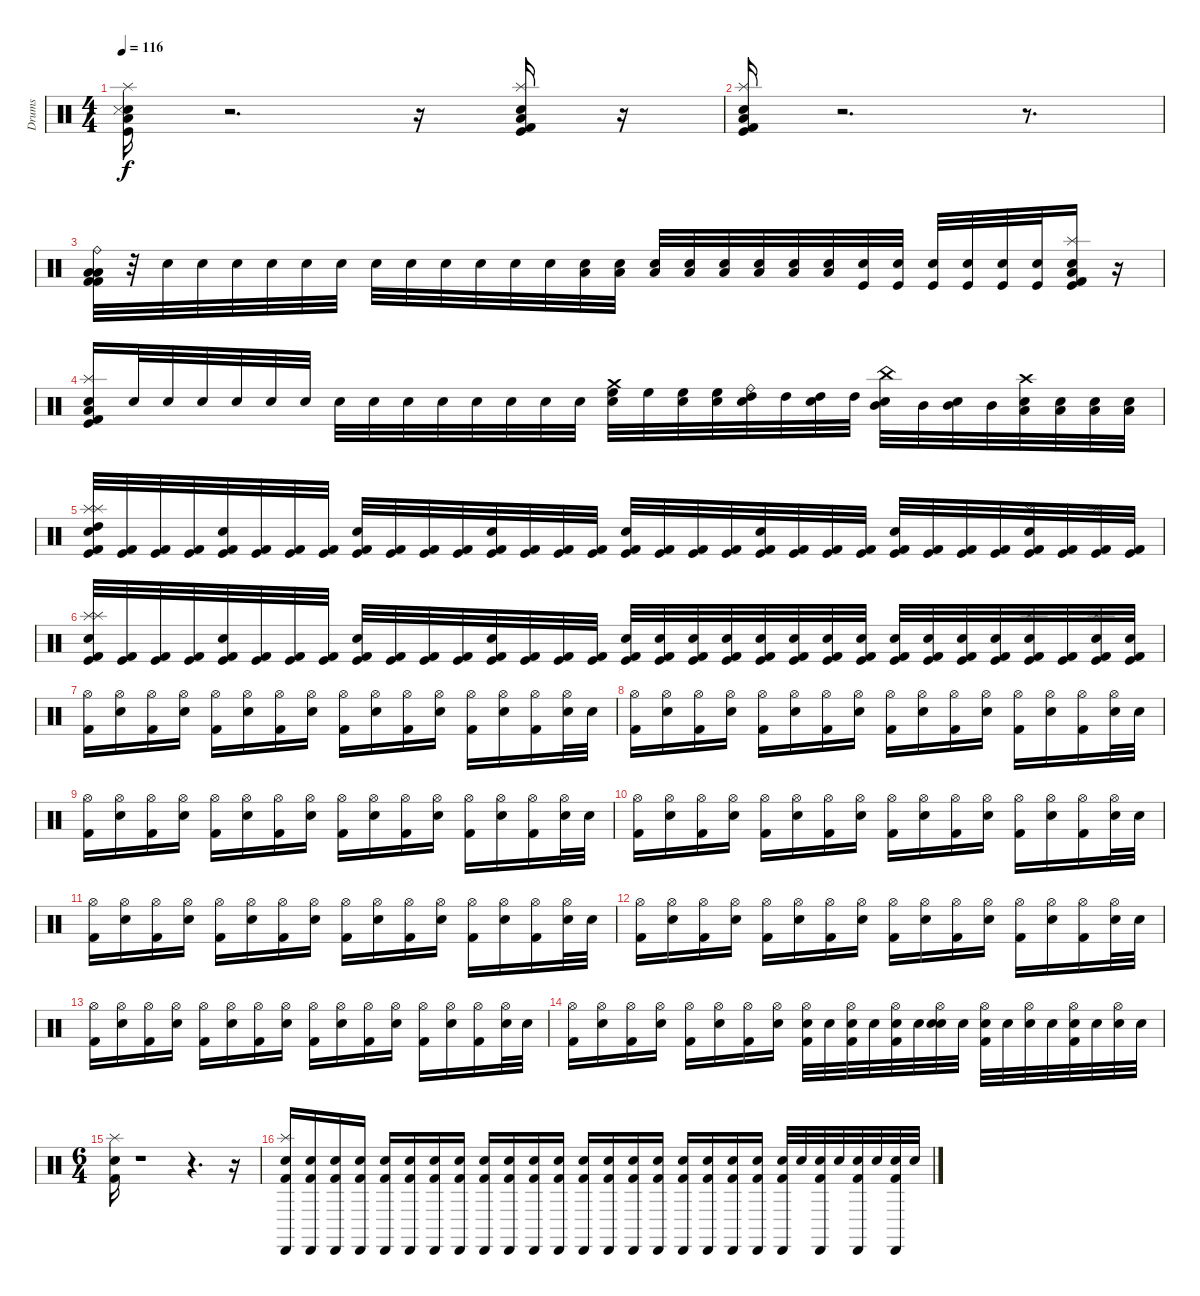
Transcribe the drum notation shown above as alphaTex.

\track ("Drums" "Drums") {instrument percussion}
\staff {score}
\articulation defaults
\ts (4 4)
\tempo 116
\clef neutral
\ks c
("Snare (hit) 2" "Kick (hit)" "Metronome (hit)" "Low Floor Tom (hit)" "Splash (hit)").16{dy f} r.2{d} r.16 ("Kick (hit) 2" "Kick (hit)" "Snare (hit) 2" "Low Floor Tom (hit)" "Splash (hit)").16 r.16 |
("Kick (hit) 2" "Kick (hit)" "Snare (hit) 2" "Low Floor Tom (hit)" "Splash (hit)").16 r.2{d} r.8{d} |
("Kick (hit) 2" "Kick (hit) 2" "Low Tom (hit)" "Low Floor Tom (hit)" "Ride (bell)").32 r.32 "Electric Snare (hit)".32 "Electric Snare (hit)".32 "Electric Snare (hit)".32 "Electric Snare (hit)".32 "Electric Snare (hit)".32 "Electric Snare (hit)".32 "Electric Snare (hit)".32 "Electric Snare (hit)".32 "Electric Snare (hit)".32 "Electric Snare (hit)".32 "Electric Snare (hit)".32 "Electric Snare (hit)".32 ("Low Tom (hit)" "Electric Snare (hit)").32 ("Low Tom (hit)" "Electric Snare (hit)").32 ("Low Tom (hit)" "Electric Snare (hit)").32 ("Low Tom (hit)" "Electric Snare (hit)").32 ("Low Floor Tom (hit)" "Electric Snare (hit)").32 ("Low Floor Tom (hit)" "Electric Snare (hit)").32 ("Low Floor Tom (hit)" "Electric Snare (hit)").32 ("Low Floor Tom (hit)" "Electric Snare (hit)").32 ("Kick (hit)" "Electric Snare (hit)").32 ("Kick (hit)" "Electric Snare (hit)").32 ("Kick (hit)" "Electric Snare (hit)").32 ("Kick (hit)" "Electric Snare (hit)").32 ("Kick (hit)" "Electric Snare (hit)").32 ("Kick (hit)" "Electric Snare (hit)").32 ("Kick (hit) 2" "Kick (hit)" "Snare (hit) 2" "Low Floor Tom (hit)" "Splash (hit)").16 r.16 |
("Kick (hit) 2" "Kick (hit)" "Snare (hit) 2" "Low Floor Tom (hit)" "Splash (hit)").16 "Electric Snare (hit)".32 "Electric Snare (hit)".32 "Electric Snare (hit)".32 "Electric Snare (hit)".32 "Electric Snare (hit)".32 "Electric Snare (hit)".32 "Electric Snare (hit)".32 "Electric Snare (hit)".32 "Electric Snare (hit)".32 "Electric Snare (hit)".32 "Electric Snare (hit)".32 "Electric Snare (hit)".32 "Electric Snare (hit)".32 "Electric Snare (hit)".32 ("Crash medium (hit)" "Electric Snare (hit)" "High Floor Tom (hit)").32 "High Floor Tom (hit)".32 ("Electric Snare (hit)" "High Floor Tom (hit)").32 ("Electric Snare (hit)" "High Floor Tom (hit)").32 ("Ride (bell)" "Electric Snare (hit)" "High Tom (hit)").32 "High Tom (hit)".32 ("Electric Snare (hit)" "High Tom (hit)").32 "High Tom (hit)".32 ("China (hit)" "Electric Snare (hit)" "Mid Tom (hit)").32 "Mid Tom (hit)".32 ("Electric Snare (hit)" "Mid Tom (hit)").32 "Mid Tom (hit)".32 ("Crash high (hit)" "Electric Snare (hit)" "Low Tom (hit)").32 ("Electric Snare (hit)" "Low Tom (hit)").32 ("Electric Snare (hit)" "Low Tom (hit)").32 ("Electric Snare (hit)" "Low Floor Tom (hit)").32 |
("High Tom (hit)" "Splash (hit)" "Electric Snare (hit)" "Kick (hit)" "Kick (hit) 2" "Splash (hit)").32 ("Kick (hit)" "Kick (hit) 2").32 ("Kick (hit)" "Kick (hit) 2").32 ("Kick (hit)" "Kick (hit) 2").32 ("Electric Snare (hit)" "Kick (hit)" "Kick (hit) 2").32 ("Kick (hit)" "Kick (hit) 2").32 ("Kick (hit)" "Kick (hit) 2").32 ("Kick (hit)" "Kick (hit) 2").32 ("Electric Snare (hit)" "Kick (hit)" "Kick (hit) 2").32 ("Kick (hit)" "Kick (hit) 2").32 ("Kick (hit)" "Kick (hit) 2").32 ("Kick (hit)" "Kick (hit) 2").32 ("Electric Snare (hit)" "Kick (hit)" "Kick (hit) 2").32 ("Kick (hit)" "Kick (hit) 2").32 ("Kick (hit)" "Kick (hit) 2").32 ("Kick (hit)" "Kick (hit) 2").32 ("Electric Snare (hit)" "Kick (hit)" "Kick (hit) 2").32 ("Kick (hit)" "Kick (hit) 2").32 ("Kick (hit)" "Kick (hit) 2").32 ("Kick (hit)" "Kick (hit) 2").32 ("Electric Snare (hit)" "Kick (hit)" "Kick (hit) 2").32 ("Kick (hit)" "Kick (hit) 2").32 ("Kick (hit)" "Kick (hit) 2").32 ("Kick (hit)" "Kick (hit) 2").32 ("Electric Snare (hit)" "Kick (hit)" "Kick (hit) 2").32 ("Kick (hit)" "Kick (hit) 2").32 ("Kick (hit)" "Kick (hit) 2").32 ("Kick (hit)" "Kick (hit) 2").32 ("Splash (hit)" "Electric Snare (hit)" "Kick (hit)" "Kick (hit) 2").32 ("Kick (hit)" "Kick (hit) 2").32 ("Splash (hit)" "Kick (hit)" "Kick (hit) 2").32 ("Kick (hit)" "Kick (hit) 2").32 |
("Splash (hit)" "Splash (hit)" "Electric Snare (hit)" "Kick (hit)" "Kick (hit) 2").32 ("Kick (hit)" "Kick (hit) 2").32 ("Kick (hit)" "Kick (hit) 2").32 ("Kick (hit)" "Kick (hit) 2").32 ("Electric Snare (hit)" "Kick (hit)" "Kick (hit) 2").32 ("Kick (hit)" "Kick (hit) 2").32 ("Kick (hit)" "Kick (hit) 2").32 ("Kick (hit)" "Kick (hit) 2").32 ("Electric Snare (hit)" "Kick (hit)" "Kick (hit) 2").32 ("Kick (hit)" "Kick (hit) 2").32 ("Kick (hit)" "Kick (hit) 2").32 ("Kick (hit)" "Kick (hit) 2").32 ("Electric Snare (hit)" "Kick (hit)" "Kick (hit) 2").32 ("Kick (hit)" "Kick (hit) 2").32 ("Kick (hit)" "Kick (hit) 2").32 ("Kick (hit)" "Kick (hit) 2").32 ("Electric Snare (hit)" "Kick (hit)" "Kick (hit) 2").32 ("Electric Snare (hit)" "Kick (hit)" "Kick (hit) 2").32 ("Electric Snare (hit)" "Kick (hit)" "Kick (hit) 2").32 ("Electric Snare (hit)" "Kick (hit)" "Kick (hit) 2").32 ("Electric Snare (hit)" "Kick (hit)" "Kick (hit) 2").32 ("Electric Snare (hit)" "Kick (hit)" "Kick (hit) 2").32 ("Electric Snare (hit)" "Kick (hit)" "Kick (hit) 2").32 ("Electric Snare (hit)" "Kick (hit)" "Kick (hit) 2").32 ("Electric Snare (hit)" "Kick (hit)" "Kick (hit) 2").32 ("Electric Snare (hit)" "Kick (hit)" "Kick (hit) 2").32 ("Electric Snare (hit)" "Kick (hit)" "Kick (hit) 2").32 ("Electric Snare (hit)" "Kick (hit)" "Kick (hit) 2").32 ("Splash (hit)" "Electric Snare (hit)" "Kick (hit)" "Kick (hit) 2").32 ("Kick (hit)" "Kick (hit) 2").32 ("Electric Snare (hit)" "Splash (hit)" "Kick (hit)" "Kick (hit) 2").32 ("Electric Snare (hit)" "Kick (hit)" "Kick (hit) 2").32 |
("Hi-Hat (open)" "Kick (hit) 2").16 ("Hi-Hat (open)" "Snare (hit) 2").16 ("Hi-Hat (open)" "Kick (hit) 2").16 ("Hi-Hat (open)" "Snare (hit) 2").16 ("Hi-Hat (open)" "Kick (hit) 2").16 ("Hi-Hat (open)" "Snare (hit) 2").16 ("Hi-Hat (open)" "Kick (hit) 2").16 ("Hi-Hat (open)" "Snare (hit) 2").16 ("Hi-Hat (open)" "Kick (hit) 2").16 ("Hi-Hat (open)" "Snare (hit) 2").16 ("Hi-Hat (open)" "Kick (hit) 2").16 ("Hi-Hat (open)" "Snare (hit) 2").16 ("Hi-Hat (open)" "Kick (hit) 2").16 ("Hi-Hat (open)" "Snare (hit) 2").16 ("Hi-Hat (open)" "Kick (hit) 2").16 ("Hi-Hat (open)" "Snare (hit) 2").32 "Snare (hit) 2".32 |
("Hi-Hat (open)" "Kick (hit) 2").16 ("Hi-Hat (open)" "Snare (hit) 2").16 ("Hi-Hat (open)" "Kick (hit) 2").16 ("Hi-Hat (open)" "Snare (hit) 2").16 ("Hi-Hat (open)" "Kick (hit) 2").16 ("Hi-Hat (open)" "Snare (hit) 2").16 ("Hi-Hat (open)" "Kick (hit) 2").16 ("Hi-Hat (open)" "Snare (hit) 2").16 ("Hi-Hat (open)" "Kick (hit) 2").16 ("Hi-Hat (open)" "Snare (hit) 2").16 ("Hi-Hat (open)" "Kick (hit) 2").16 ("Hi-Hat (open)" "Snare (hit) 2").16 ("Hi-Hat (open)" "Kick (hit) 2").16 ("Hi-Hat (open)" "Snare (hit) 2").16 ("Hi-Hat (open)" "Kick (hit) 2").16 ("Hi-Hat (open)" "Snare (hit) 2").32 "Snare (hit) 2".32 |
("Hi-Hat (open)" "Kick (hit) 2").16 ("Hi-Hat (open)" "Snare (hit) 2").16 ("Hi-Hat (open)" "Kick (hit) 2").16 ("Hi-Hat (open)" "Snare (hit) 2").16 ("Hi-Hat (open)" "Kick (hit) 2").16 ("Hi-Hat (open)" "Snare (hit) 2").16 ("Hi-Hat (open)" "Kick (hit) 2").16 ("Hi-Hat (open)" "Snare (hit) 2").16 ("Hi-Hat (open)" "Kick (hit) 2").16 ("Hi-Hat (open)" "Snare (hit) 2").16 ("Hi-Hat (open)" "Kick (hit) 2").16 ("Hi-Hat (open)" "Snare (hit) 2").16 ("Hi-Hat (open)" "Kick (hit) 2").16 ("Hi-Hat (open)" "Snare (hit) 2").16 ("Hi-Hat (open)" "Kick (hit) 2").16 ("Hi-Hat (open)" "Snare (hit) 2").32 "Snare (hit) 2".32 |
("Hi-Hat (open)" "Kick (hit) 2").16 ("Hi-Hat (open)" "Snare (hit) 2").16 ("Hi-Hat (open)" "Kick (hit) 2").16 ("Hi-Hat (open)" "Snare (hit) 2").16 ("Hi-Hat (open)" "Kick (hit) 2").16 ("Hi-Hat (open)" "Snare (hit) 2").16 ("Hi-Hat (open)" "Kick (hit) 2").16 ("Hi-Hat (open)" "Snare (hit) 2").16 ("Hi-Hat (open)" "Kick (hit) 2").16 ("Hi-Hat (open)" "Snare (hit) 2").16 ("Hi-Hat (open)" "Kick (hit) 2").16 ("Hi-Hat (open)" "Snare (hit) 2").16 ("Hi-Hat (open)" "Kick (hit) 2").16 ("Hi-Hat (open)" "Snare (hit) 2").16 ("Hi-Hat (open)" "Kick (hit) 2").16 ("Hi-Hat (open)" "Snare (hit) 2").32 "Snare (hit) 2".32 |
("Hi-Hat (open)" "Kick (hit) 2").16 ("Hi-Hat (open)" "Snare (hit) 2").16 ("Hi-Hat (open)" "Kick (hit) 2").16 ("Hi-Hat (open)" "Snare (hit) 2").16 ("Hi-Hat (open)" "Kick (hit) 2").16 ("Hi-Hat (open)" "Snare (hit) 2").16 ("Hi-Hat (open)" "Kick (hit) 2").16 ("Hi-Hat (open)" "Snare (hit) 2").16 ("Hi-Hat (open)" "Kick (hit) 2").16 ("Hi-Hat (open)" "Snare (hit) 2").16 ("Hi-Hat (open)" "Kick (hit) 2").16 ("Hi-Hat (open)" "Snare (hit) 2").16 ("Hi-Hat (open)" "Kick (hit) 2").16 ("Hi-Hat (open)" "Snare (hit) 2").16 ("Hi-Hat (open)" "Kick (hit) 2").16 ("Hi-Hat (open)" "Snare (hit) 2").32 "Snare (hit) 2".32 |
("Hi-Hat (open)" "Kick (hit) 2").16 ("Hi-Hat (open)" "Snare (hit) 2").16 ("Hi-Hat (open)" "Kick (hit) 2").16 ("Hi-Hat (open)" "Snare (hit) 2").16 ("Hi-Hat (open)" "Kick (hit) 2").16 ("Hi-Hat (open)" "Snare (hit) 2").16 ("Hi-Hat (open)" "Kick (hit) 2").16 ("Hi-Hat (open)" "Snare (hit) 2").16 ("Hi-Hat (open)" "Kick (hit) 2").16 ("Hi-Hat (open)" "Snare (hit) 2").16 ("Hi-Hat (open)" "Kick (hit) 2").16 ("Hi-Hat (open)" "Snare (hit) 2").16 ("Hi-Hat (open)" "Kick (hit) 2").16 ("Hi-Hat (open)" "Snare (hit) 2").16 ("Hi-Hat (open)" "Kick (hit) 2").16 ("Hi-Hat (open)" "Snare (hit) 2").32 "Snare (hit) 2".32 |
("Hi-Hat (open)" "Kick (hit) 2").16 ("Hi-Hat (open)" "Snare (hit) 2").16 ("Hi-Hat (open)" "Kick (hit) 2").16 ("Hi-Hat (open)" "Snare (hit) 2").16 ("Hi-Hat (open)" "Kick (hit) 2").16 ("Hi-Hat (open)" "Snare (hit) 2").16 ("Hi-Hat (open)" "Kick (hit) 2").16 ("Hi-Hat (open)" "Snare (hit) 2").16 ("Hi-Hat (open)" "Kick (hit) 2").16 ("Hi-Hat (open)" "Snare (hit) 2").16 ("Hi-Hat (open)" "Kick (hit) 2").16 ("Hi-Hat (open)" "Snare (hit) 2").16 ("Hi-Hat (open)" "Kick (hit) 2").16 ("Hi-Hat (open)" "Snare (hit) 2").16 ("Hi-Hat (open)" "Kick (hit) 2").16 ("Hi-Hat (open)" "Snare (hit) 2").32 "Snare (hit) 2".32 |
("Hi-Hat (open)" "Kick (hit) 2").16 ("Hi-Hat (open)" "Snare (hit) 2").16 ("Hi-Hat (open)" "Kick (hit) 2").16 ("Hi-Hat (open)" "Snare (hit) 2").16 ("Hi-Hat (open)" "Kick (hit) 2").16 ("Hi-Hat (open)" "Snare (hit) 2").16 ("Hi-Hat (open)" "Kick (hit) 2").16 ("Hi-Hat (open)" "Snare (hit) 2").16 ("Electric Snare (hit)" "Hi-Hat (open)" "Kick (hit) 2").32 "Electric Snare (hit)".32 ("Kick (hit) 2" "Electric Snare (hit)" "Hi-Hat (open)").32 "Electric Snare (hit)".32 ("Electric Snare (hit)" "Hi-Hat (open)" "Kick (hit) 2").32 "Electric Snare (hit)".32 ("Electric Snare (hit)" "Hi-Hat (open)" "Snare (hit) 2").32 "Electric Snare (hit)".32 ("Snare (hit) 2" "Hi-Hat (open)" "Kick (hit) 2").32 "Snare (hit) 2".32 ("Hi-Hat (open)" "Snare (hit) 2").32 "Electric Snare (hit)".32 ("Electric Snare (hit)" "Hi-Hat (open)" "Kick (hit) 2").32 "Electric Snare (hit)".32 ("Hi-Hat (open)" "Snare (hit) 2").32 "Snare (hit) 2".32 |
\ts (6 4)
("Electric Snare (hit)" "Kick (hit) 2" "Splash (hit)").16 r.1 r.4{d} r.16 |
("Cabasa (hit)" "Splash (hit)" "Electric Snare (hit)" "Kick (hit) 2").16 ("Cabasa (hit)" "Kick (hit) 2" "Electric Snare (hit)").16 ("Cabasa (hit)" "Kick (hit) 2" "Electric Snare (hit)").16 ("Cabasa (hit)" "Kick (hit) 2" "Electric Snare (hit)").16 ("Cabasa (hit)" "Kick (hit) 2" "Electric Snare (hit)").16 ("Cabasa (hit)" "Kick (hit) 2" "Electric Snare (hit)").16 ("Cabasa (hit)" "Kick (hit) 2" "Electric Snare (hit)").16 ("Cabasa (hit)" "Kick (hit) 2" "Electric Snare (hit)").16 ("Cabasa (hit)" "Kick (hit) 2" "Electric Snare (hit)").16 ("Cabasa (hit)" "Kick (hit) 2" "Electric Snare (hit)").16 ("Cabasa (hit)" "Kick (hit) 2" "Electric Snare (hit)").16 ("Cabasa (hit)" "Kick (hit) 2" "Electric Snare (hit)").16 ("Cabasa (hit)" "Kick (hit) 2" "Electric Snare (hit)").16 ("Cabasa (hit)" "Kick (hit) 2" "Electric Snare (hit)").16 ("Cabasa (hit)" "Kick (hit) 2" "Electric Snare (hit)").16 ("Cabasa (hit)" "Kick (hit) 2" "Electric Snare (hit)").16 ("Cabasa (hit)" "Kick (hit) 2" "Electric Snare (hit)").16 ("Cabasa (hit)" "Kick (hit) 2" "Electric Snare (hit)").16 ("Cabasa (hit)" "Kick (hit) 2" "Electric Snare (hit)").16 ("Cabasa (hit)" "Kick (hit) 2" "Electric Snare (hit)").16 ("Cabasa (hit)" "Kick (hit) 2" "Electric Snare (hit)").32 "Electric Snare (hit)".32 ("Cabasa (hit)" "Kick (hit) 2" "Electric Snare (hit)").32 "Electric Snare (hit)".32 ("Cabasa (hit)" "Kick (hit) 2" "Electric Snare (hit)").32 "Electric Snare (hit)".32 ("Cabasa (hit)" "Kick (hit) 2" "Electric Snare (hit)").32 "Electric Snare (hit)".32
